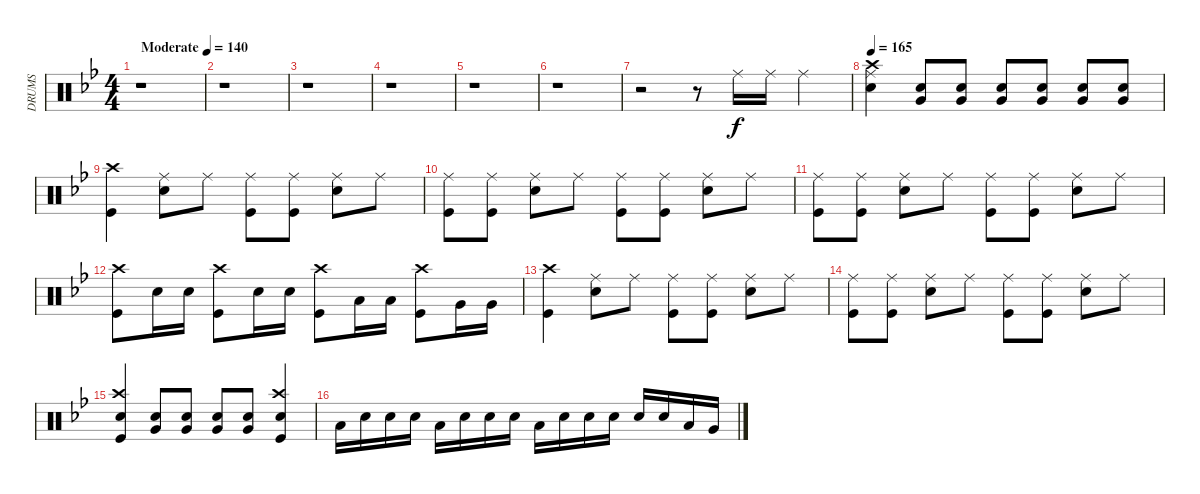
\track ("DRUMS" "DRUMS") {instrument percussion}
\staff {score}
\articulation defaults
\ts (4 4)
\tempo (140 "Moderate")
\clef neutral
\ks bb
r.1{dy f} |
r.1 |
r.1 |
r.1 |
r.1 |
r.1 |
r.2 r.8 "Ride (middle)".16 "Ride (middle)".16 "Ride (middle)".4 |
\tempo 165
("Ride (middle)" "Electric Snare (hit)" "Crash high (hit)").4 ("Electric Snare (hit)" "Very Low Tom (hit)").8 ("Electric Snare (hit)" "Very Low Tom (hit)").8 ("Electric Snare (hit)" "Very Low Tom (hit)").8 ("Electric Snare (hit)" "Very Low Tom (hit)").8 ("Electric Snare (hit)" "Very Low Tom (hit)").8 ("Electric Snare (hit)" "Very Low Tom (hit)").8 |
("Crash high (hit)" "Kick (hit)").4 ("Ride (middle)" "Electric Snare (hit)").8 "Ride (middle)".8 ("Ride (middle)" "Kick (hit)").8 ("Ride (middle)" "Kick (hit)").8 ("Ride (middle)" "Electric Snare (hit)").8 "Ride (middle)".8 |
("Ride (middle)" "Kick (hit)").8 ("Ride (middle)" "Kick (hit)").8 ("Ride (middle)" "Electric Snare (hit)").8 "Ride (middle)".8 ("Ride (middle)" "Kick (hit)").8 ("Ride (middle)" "Kick (hit)").8 ("Ride (middle)" "Electric Snare (hit)").8 "Ride (middle)".8 |
("Ride (middle)" "Kick (hit)").8 ("Ride (middle)" "Kick (hit)").8 ("Ride (middle)" "Electric Snare (hit)").8 "Ride (middle)".8 ("Ride (middle)" "Kick (hit)").8 ("Ride (middle)" "Kick (hit)").8 ("Ride (middle)" "Electric Snare (hit)").8 "Ride (middle)".8 |
("Crash high (hit)" "Kick (hit)").8 "Electric Snare (hit)".16 "Electric Snare (hit)".16 ("Crash high (hit)" "Kick (hit)").8 "Electric Snare (hit)".16 "Electric Snare (hit)".16 ("Crash high (hit)" "Kick (hit)").8 "Low Tom (hit)".16 "Low Tom (hit)".16 ("Crash high (hit)" "Kick (hit)").8 "Very Low Tom (hit)".16 "Very Low Tom (hit)".16 |
("Crash high (hit)" "Kick (hit)").4 ("Ride (middle)" "Electric Snare (hit)").8 "Ride (middle)".8 ("Ride (middle)" "Kick (hit)").8 ("Ride (middle)" "Kick (hit)").8 ("Ride (middle)" "Electric Snare (hit)").8 "Ride (middle)".8 |
("Ride (middle)" "Kick (hit)").8 ("Ride (middle)" "Kick (hit)").8 ("Ride (middle)" "Electric Snare (hit)").8 "Ride (middle)".8 ("Ride (middle)" "Kick (hit)").8 ("Ride (middle)" "Kick (hit)").8 ("Ride (middle)" "Electric Snare (hit)").8 "Ride (middle)".8 |
("Crash high (hit)" "Electric Snare (hit)" "Kick (hit)").4 ("Electric Snare (hit)" "Very Low Tom (hit)").8 ("Electric Snare (hit)" "Very Low Tom (hit)").8 ("Electric Snare (hit)" "Very Low Tom (hit)").8 ("Electric Snare (hit)" "Very Low Tom (hit)").8 ("Crash high (hit)" "Electric Snare (hit)" "Kick (hit)").4 |
"Low Tom (hit)".16 "Electric Snare (hit)".16 "Electric Snare (hit)".16 "Electric Snare (hit)".16 "Low Tom (hit)".16 "Electric Snare (hit)".16 "Electric Snare (hit)".16 "Electric Snare (hit)".16 "Low Tom (hit)".16 "Electric Snare (hit)".16 "Electric Snare (hit)".16 "Electric Snare (hit)".16 "Electric Snare (hit)".16 "Electric Snare (hit)".16 "Low Tom (hit)".16 "Very Low Tom (hit)".16
